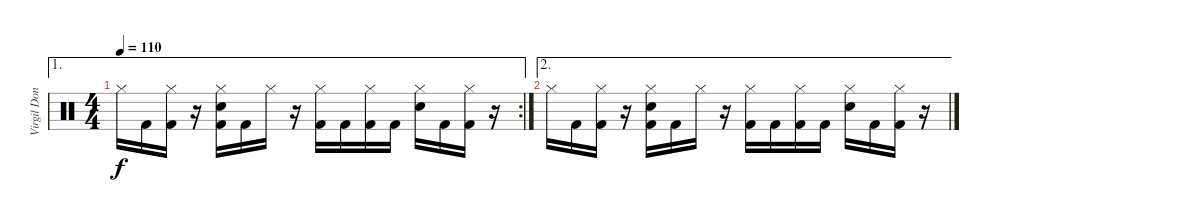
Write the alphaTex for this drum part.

\track ("Virgil Donati" "Virgil Don") {instrument percussion}
\staff {score}
\articulation defaults
\ae 1
\rc 2
\ts (4 4)
\tempo 110
\clef neutral
\ks c "Hi-Hat (closed)".16{dy f} "Kick (hit) 2".16
("Hi-Hat (closed)" "Kick (hit) 2").16 r.16 ("Hi-Hat (closed)" "Snare (hit) 2" "Kick (hit) 2").16 "Kick (hit) 2".16 "Hi-Hat (closed)".16 r.16 ("Hi-Hat (closed)" "Kick (hit) 2").16 "Kick (hit) 2".16 ("Hi-Hat (closed)" "Kick (hit) 2").16 "Kick (hit) 2".16 ("Hi-Hat (closed)" "Snare (hit) 2").16 "Kick (hit) 2".16 ("Hi-Hat (closed)" "Kick (hit) 2").16 r.16 |
\ae 2 "Hi-Hat (closed)".16 "Kick (hit) 2".16
("Hi-Hat (closed)" "Kick (hit) 2").16 r.16 ("Hi-Hat (closed)" "Snare (hit) 2" "Kick (hit) 2").16 "Kick (hit) 2".16 "Hi-Hat (closed)".16 r.16 ("Hi-Hat (closed)" "Kick (hit) 2").16 "Kick (hit) 2".16 ("Hi-Hat (closed)" "Kick (hit) 2").16 "Kick (hit) 2".16 ("Hi-Hat (closed)" "Snare (hit) 2").16 "Kick (hit) 2".16 ("Hi-Hat (closed)" "Kick (hit) 2").16 r.16
